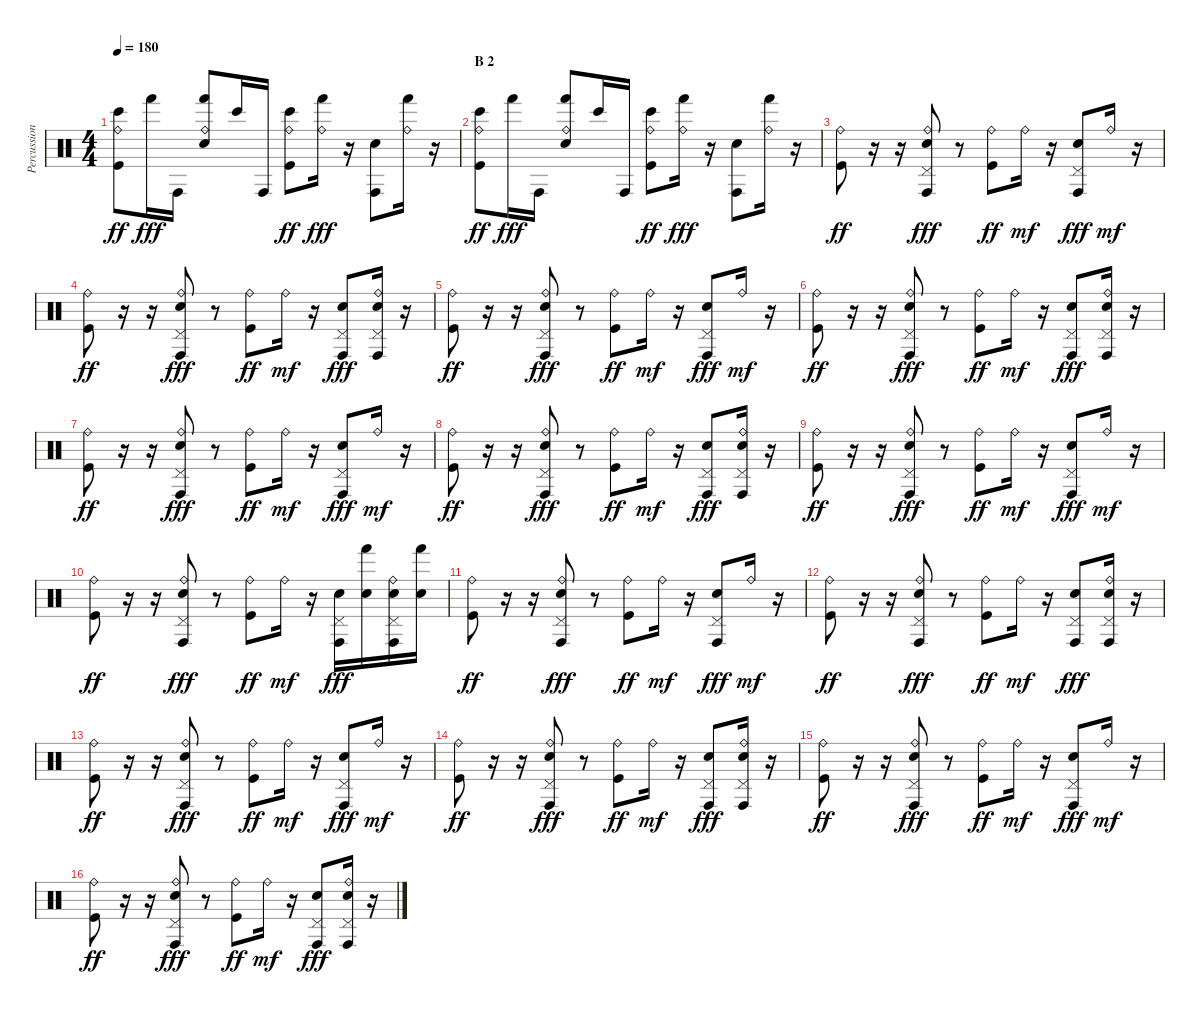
\track ("Percussion" "Percussion") {instrument percussion}
\staff {score}
\articulation defaults
\ts (4 4)
\tempo 180
\clef neutral
\ks c
("Ride (bell)" "Bongo High (hit)" "Kick (hit)").8{dy ff} "Hand (hit)".16{dy fff} "Conga high (hit)".16 ("Ride (bell)" "Hand (hit)" "Electric Snare (hit)").8 "Bongo High (hit)".16 "Conga high (hit)".16 ("Ride (bell)" "Bongo High (hit)" "Kick (hit)").8{dy ff} ("Ride (bell)" "Hand (hit)").16{dy fff} r.16 ("Conga high (hit)" "Electric Snare (hit)").8 ("Ride (bell)" "Hand (hit)").16 r.16 |
\section ("" "B 2")
("Ride (bell)" "Bongo High (hit)" "Kick (hit)").8{dy ff} "Hand (hit)".16{dy fff} "Conga high (hit)".16 ("Ride (bell)" "Hand (hit)" "Electric Snare (hit)").8 "Bongo High (hit)".16 "Conga high (hit)".16 ("Ride (bell)" "Bongo High (hit)" "Kick (hit)").8{dy ff} ("Ride (bell)" "Hand (hit)").16{dy fff} r.16 ("Conga high (hit)" "Electric Snare (hit)").8 ("Ride (bell)" "Hand (hit)").16 r.16 |
("Ride (bell)" "Kick (hit)").8{dy ff} r.16 r.16 ("Ride (bell)" "Pedal Hi-Hat (hit)" "Conga high (hit)" "Electric Snare (hit)").8{dy fff} r.8 ("Ride (bell)" "Kick (hit)").8{dy ff} "Ride (bell)".16{dy mf} r.16 ("Pedal Hi-Hat (hit)" "Conga high (hit)" "Electric Snare (hit)").8{dy fff} "Ride (bell)".16{dy mf} r.16 |
("Ride (bell)" "Kick (hit)").8{dy ff} r.16 r.16 ("Ride (bell)" "Pedal Hi-Hat (hit)" "Conga high (hit)" "Electric Snare (hit)").8{dy fff} r.8 ("Ride (bell)" "Kick (hit)").8{dy ff} "Ride (bell)".16{dy mf} r.16 ("Pedal Hi-Hat (hit)" "Conga high (hit)" "Electric Snare (hit)").8{dy fff} ("Ride (bell)" "Pedal Hi-Hat (hit)" "Conga high (hit)" "Electric Snare (hit)").16 r.16 |
("Ride (bell)" "Kick (hit)").8{dy ff} r.16 r.16 ("Ride (bell)" "Pedal Hi-Hat (hit)" "Conga high (hit)" "Electric Snare (hit)").8{dy fff} r.8 ("Ride (bell)" "Kick (hit)").8{dy ff} "Ride (bell)".16{dy mf} r.16 ("Pedal Hi-Hat (hit)" "Conga high (hit)" "Electric Snare (hit)").8{dy fff} "Ride (bell)".16{dy mf} r.16 |
("Ride (bell)" "Kick (hit)").8{dy ff} r.16 r.16 ("Ride (bell)" "Pedal Hi-Hat (hit)" "Conga high (hit)" "Electric Snare (hit)").8{dy fff} r.8 ("Ride (bell)" "Kick (hit)").8{dy ff} "Ride (bell)".16{dy mf} r.16 ("Pedal Hi-Hat (hit)" "Conga high (hit)" "Electric Snare (hit)").8{dy fff} ("Ride (bell)" "Pedal Hi-Hat (hit)" "Conga high (hit)" "Electric Snare (hit)").16 r.16 |
("Ride (bell)" "Kick (hit)").8{dy ff} r.16 r.16 ("Ride (bell)" "Pedal Hi-Hat (hit)" "Conga high (hit)" "Electric Snare (hit)").8{dy fff} r.8 ("Ride (bell)" "Kick (hit)").8{dy ff} "Ride (bell)".16{dy mf} r.16 ("Pedal Hi-Hat (hit)" "Conga high (hit)" "Electric Snare (hit)").8{dy fff} "Ride (bell)".16{dy mf} r.16 |
("Ride (bell)" "Kick (hit)").8{dy ff} r.16 r.16 ("Ride (bell)" "Pedal Hi-Hat (hit)" "Conga high (hit)" "Electric Snare (hit)").8{dy fff} r.8 ("Ride (bell)" "Kick (hit)").8{dy ff} "Ride (bell)".16{dy mf} r.16 ("Pedal Hi-Hat (hit)" "Conga high (hit)" "Electric Snare (hit)").8{dy fff} ("Ride (bell)" "Pedal Hi-Hat (hit)" "Conga high (hit)" "Electric Snare (hit)").16 r.16 |
("Ride (bell)" "Kick (hit)").8{dy ff} r.16 r.16 ("Ride (bell)" "Pedal Hi-Hat (hit)" "Conga high (hit)" "Electric Snare (hit)").8{dy fff} r.8 ("Ride (bell)" "Kick (hit)").8{dy ff} "Ride (bell)".16{dy mf} r.16 ("Pedal Hi-Hat (hit)" "Conga high (hit)" "Electric Snare (hit)").8{dy fff} "Ride (bell)".16{dy mf} r.16 |
("Ride (bell)" "Kick (hit)").8{dy ff} r.16 r.16 ("Ride (bell)" "Pedal Hi-Hat (hit)" "Conga high (hit)" "Electric Snare (hit)").8{dy fff} r.8 ("Ride (bell)" "Kick (hit)").8{dy ff} "Ride (bell)".16{dy mf} r.16 ("Pedal Hi-Hat (hit)" "Conga high (hit)" "Electric Snare (hit)").16{dy fff} ("Hand (hit)" "Electric Snare (hit)").16 ("Ride (bell)" "Pedal Hi-Hat (hit)" "Conga high (hit)" "Electric Snare (hit)").16 ("Hand (hit)" "Electric Snare (hit)").16 |
("Ride (bell)" "Kick (hit)").8{dy ff} r.16 r.16 ("Ride (bell)" "Pedal Hi-Hat (hit)" "Conga high (hit)" "Electric Snare (hit)").8{dy fff} r.8 ("Ride (bell)" "Kick (hit)").8{dy ff} "Ride (bell)".16{dy mf} r.16 ("Pedal Hi-Hat (hit)" "Conga high (hit)" "Electric Snare (hit)").8{dy fff} "Ride (bell)".16{dy mf} r.16 |
("Ride (bell)" "Kick (hit)").8{dy ff} r.16 r.16 ("Ride (bell)" "Pedal Hi-Hat (hit)" "Conga high (hit)" "Electric Snare (hit)").8{dy fff} r.8 ("Ride (bell)" "Kick (hit)").8{dy ff} "Ride (bell)".16{dy mf} r.16 ("Pedal Hi-Hat (hit)" "Conga high (hit)" "Electric Snare (hit)").8{dy fff} ("Ride (bell)" "Pedal Hi-Hat (hit)" "Conga high (hit)" "Electric Snare (hit)").16 r.16 |
("Ride (bell)" "Kick (hit)").8{dy ff} r.16 r.16 ("Ride (bell)" "Pedal Hi-Hat (hit)" "Conga high (hit)" "Electric Snare (hit)").8{dy fff} r.8 ("Ride (bell)" "Kick (hit)").8{dy ff} "Ride (bell)".16{dy mf} r.16 ("Pedal Hi-Hat (hit)" "Conga high (hit)" "Electric Snare (hit)").8{dy fff} "Ride (bell)".16{dy mf} r.16 |
("Ride (bell)" "Kick (hit)").8{dy ff} r.16 r.16 ("Ride (bell)" "Pedal Hi-Hat (hit)" "Conga high (hit)" "Electric Snare (hit)").8{dy fff} r.8 ("Ride (bell)" "Kick (hit)").8{dy ff} "Ride (bell)".16{dy mf} r.16 ("Pedal Hi-Hat (hit)" "Conga high (hit)" "Electric Snare (hit)").8{dy fff} ("Ride (bell)" "Pedal Hi-Hat (hit)" "Conga high (hit)" "Electric Snare (hit)").16 r.16 |
("Ride (bell)" "Kick (hit)").8{dy ff} r.16 r.16 ("Ride (bell)" "Pedal Hi-Hat (hit)" "Conga high (hit)" "Electric Snare (hit)").8{dy fff} r.8 ("Ride (bell)" "Kick (hit)").8{dy ff} "Ride (bell)".16{dy mf} r.16 ("Pedal Hi-Hat (hit)" "Conga high (hit)" "Electric Snare (hit)").8{dy fff} "Ride (bell)".16{dy mf} r.16 |
("Ride (bell)" "Kick (hit)").8{dy ff} r.16 r.16 ("Ride (bell)" "Pedal Hi-Hat (hit)" "Conga high (hit)" "Electric Snare (hit)").8{dy fff} r.8 ("Ride (bell)" "Kick (hit)").8{dy ff} "Ride (bell)".16{dy mf} r.16 ("Pedal Hi-Hat (hit)" "Conga high (hit)" "Electric Snare (hit)").8{dy fff} ("Ride (bell)" "Pedal Hi-Hat (hit)" "Conga high (hit)" "Electric Snare (hit)").16 r.16
